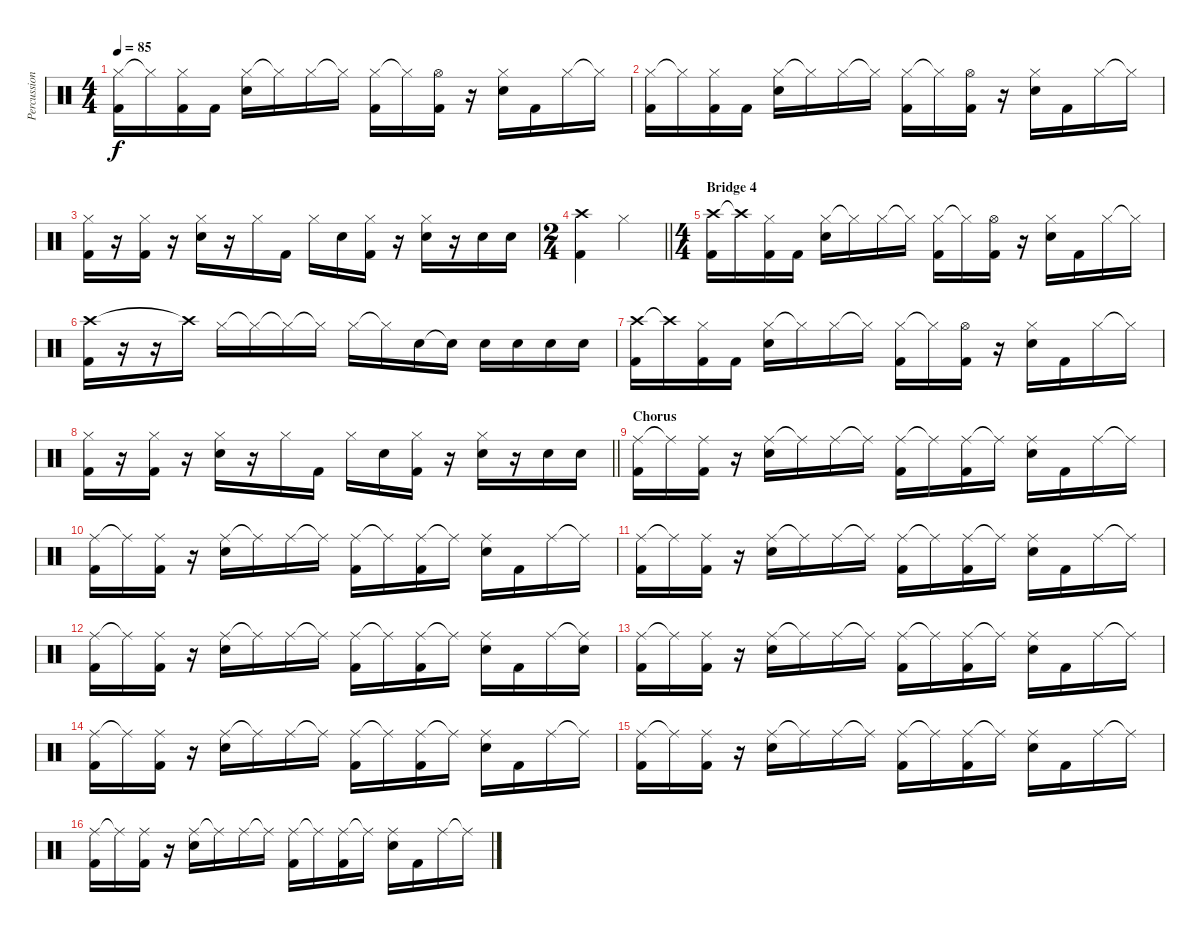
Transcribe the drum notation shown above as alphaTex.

\track ("Percussion" "Percussion") {instrument percussion}
\staff {score}
\articulation defaults
\ts (4 4)
\tempo 85
\clef neutral
\ks c
("Hi-Hat (closed)" "Kick (hit) 2").16{dy f} "Hi-Hat (closed)"{t}.16 ("Hi-Hat (closed)" "Kick (hit) 2").16 "Kick (hit) 2".16 ("Hi-Hat (closed)" "Electric Snare (hit)").16 "Hi-Hat (closed)"{t}.16 "Hi-Hat (closed)".16 "Hi-Hat (closed)"{t}.16 ("Hi-Hat (closed)" "Kick (hit) 2").16 "Hi-Hat (closed)"{t}.16 ("Hi-Hat (open)" "Kick (hit) 2").16 r.16 ("Hi-Hat (closed)" "Electric Snare (hit)").16 "Kick (hit) 2".16 "Hi-Hat (closed)".16 "Hi-Hat (closed)"{t}.16 |
("Hi-Hat (closed)" "Kick (hit) 2").16 "Hi-Hat (closed)"{t}.16 ("Hi-Hat (closed)" "Kick (hit) 2").16 "Kick (hit) 2".16 ("Hi-Hat (closed)" "Electric Snare (hit)").16 "Hi-Hat (closed)"{t}.16 "Hi-Hat (closed)".16 "Hi-Hat (closed)"{t}.16 ("Hi-Hat (closed)" "Kick (hit) 2").16 "Hi-Hat (closed)"{t}.16 ("Hi-Hat (open)" "Kick (hit) 2").16 r.16 ("Hi-Hat (closed)" "Electric Snare (hit)").16 "Kick (hit) 2".16 "Hi-Hat (closed)".16 "Hi-Hat (closed)"{t}.16 |
("Hi-Hat (closed)" "Kick (hit) 2").16 r.16 ("Hi-Hat (closed)" "Kick (hit) 2").16 r.16 ("Hi-Hat (closed)" "Electric Snare (hit)").16 r.16 "Hi-Hat (closed)".16 "Kick (hit) 2".16 "Hi-Hat (closed)".16 "Electric Snare (hit)".16 ("Hi-Hat (closed)" "Kick (hit) 2").16 r.16 ("Hi-Hat (closed)" "Electric Snare (hit)").16 r.16 "Electric Snare (hit)".16 "Electric Snare (hit)".16 |
\ts (2 4)
\barLineRight lightlight
("Crash high (hit)" "Kick (hit) 2").4 "Hi-Hat (closed)".4 |
\ts (4 4)
\section ("" "Bridge 4")
("Crash high (hit)" "Kick (hit) 2").16 "Crash high (hit)"{t}.16 ("Hi-Hat (closed)" "Kick (hit) 2").16 "Kick (hit) 2".16 ("Hi-Hat (closed)" "Electric Snare (hit)").16 "Hi-Hat (closed)"{t}.16 "Hi-Hat (closed)".16 "Hi-Hat (closed)"{t}.16 ("Hi-Hat (closed)" "Kick (hit) 2").16 "Hi-Hat (closed)"{t}.16 ("Hi-Hat (open)" "Kick (hit) 2").16 r.16 ("Hi-Hat (closed)" "Electric Snare (hit)").16 "Kick (hit) 2".16 "Hi-Hat (closed)".16 "Hi-Hat (closed)"{t}.16 |
("Crash high (hit)" "Kick (hit) 2").16 r.16 r.16 "Crash high (hit)"{t}.16 "Hi-Hat (closed)".16 "Hi-Hat (closed)"{t}.16 "Hi-Hat (closed)"{t}.16 "Hi-Hat (closed)"{t}.16 "Hi-Hat (closed)".16 "Hi-Hat (closed)"{t}.16 "Electric Snare (hit)".16 "Electric Snare (hit)"{t}.16 "Electric Snare (hit)".16 "Electric Snare (hit)".16 "Electric Snare (hit)".16 "Electric Snare (hit)".16 |
("Crash high (hit)" "Kick (hit) 2").16 "Crash high (hit)"{t}.16 ("Hi-Hat (closed)" "Kick (hit) 2").16 "Kick (hit) 2".16 ("Hi-Hat (closed)" "Electric Snare (hit)").16 "Hi-Hat (closed)"{t}.16 "Hi-Hat (closed)".16 "Hi-Hat (closed)"{t}.16 ("Hi-Hat (closed)" "Kick (hit) 2").16 "Hi-Hat (closed)"{t}.16 ("Hi-Hat (open)" "Kick (hit) 2").16 r.16 ("Hi-Hat (closed)" "Electric Snare (hit)").16 "Kick (hit) 2".16 "Hi-Hat (closed)".16 "Hi-Hat (closed)"{t}.16 |
\barLineRight lightlight
("Hi-Hat (closed)" "Kick (hit) 2").16 r.16 ("Hi-Hat (closed)" "Kick (hit) 2").16 r.16 ("Hi-Hat (closed)" "Electric Snare (hit)").16 r.16 "Hi-Hat (closed)".16 "Kick (hit) 2".16 "Hi-Hat (closed)".16 "Electric Snare (hit)".16 ("Hi-Hat (closed)" "Kick (hit) 2").16 r.16 ("Hi-Hat (closed)" "Electric Snare (hit)").16 r.16 "Electric Snare (hit)".16 "Electric Snare (hit)".16 |
\section ("" "Chorus")
("Ride (middle)" "Kick (hit) 2").16 "Ride (middle)"{t}.16 ("Ride (middle)" "Kick (hit) 2").16 r.16 ("Ride (middle)" "Electric Snare (hit)").16 "Ride (middle)"{t}.16 "Ride (middle)".16 "Ride (middle)"{t}.16 ("Ride (middle)" "Kick (hit) 2").16 "Ride (middle)"{t}.16 ("Ride (middle)" "Kick (hit) 2").16 "Ride (middle)"{t}.16 ("Ride (middle)" "Electric Snare (hit)").16 "Kick (hit) 2".16 "Ride (middle)".16 "Ride (middle)"{t}.16 |
("Ride (middle)" "Kick (hit) 2").16 "Ride (middle)"{t}.16 ("Ride (middle)" "Kick (hit) 2").16 r.16 ("Ride (middle)" "Electric Snare (hit)").16 "Ride (middle)"{t}.16 "Ride (middle)".16 "Ride (middle)"{t}.16 ("Ride (middle)" "Kick (hit) 2").16 "Ride (middle)"{t}.16 ("Ride (middle)" "Kick (hit) 2").16 "Ride (middle)"{t}.16 ("Ride (middle)" "Electric Snare (hit)").16 "Kick (hit) 2".16 "Ride (middle)".16 "Ride (middle)"{t}.16 |
("Ride (middle)" "Kick (hit) 2").16 "Ride (middle)"{t}.16 ("Ride (middle)" "Kick (hit) 2").16 r.16 ("Ride (middle)" "Electric Snare (hit)").16 "Ride (middle)"{t}.16 "Ride (middle)".16 "Ride (middle)"{t}.16 ("Ride (middle)" "Kick (hit) 2").16 "Ride (middle)"{t}.16 ("Ride (middle)" "Kick (hit) 2").16 "Ride (middle)"{t}.16 ("Ride (middle)" "Electric Snare (hit)").16 "Kick (hit) 2".16 "Ride (middle)".16 "Ride (middle)"{t}.16 |
("Ride (middle)" "Kick (hit) 2").16 "Ride (middle)"{t}.16 ("Ride (middle)" "Kick (hit) 2").16 r.16 ("Ride (middle)" "Electric Snare (hit)").16 "Ride (middle)"{t}.16 "Ride (middle)".16 "Ride (middle)"{t}.16 ("Ride (middle)" "Kick (hit) 2").16 "Ride (middle)"{t}.16 ("Ride (middle)" "Kick (hit) 2").16 "Ride (middle)"{t}.16 ("Ride (middle)" "Electric Snare (hit)").16 "Kick (hit) 2".16 "Ride (middle)".16 ("Ride (middle)"{t} "Electric Snare (hit)").16 |
("Ride (middle)" "Kick (hit) 2").16 "Ride (middle)"{t}.16 ("Ride (middle)" "Kick (hit) 2").16 r.16 ("Ride (middle)" "Electric Snare (hit)").16 "Ride (middle)"{t}.16 "Ride (middle)".16 "Ride (middle)"{t}.16 ("Ride (middle)" "Kick (hit) 2").16 "Ride (middle)"{t}.16 ("Ride (middle)" "Kick (hit) 2").16 "Ride (middle)"{t}.16 ("Ride (middle)" "Electric Snare (hit)").16 "Kick (hit) 2".16 "Ride (middle)".16 "Ride (middle)"{t}.16 |
("Ride (middle)" "Kick (hit) 2").16 "Ride (middle)"{t}.16 ("Ride (middle)" "Kick (hit) 2").16 r.16 ("Ride (middle)" "Electric Snare (hit)").16 "Ride (middle)"{t}.16 "Ride (middle)".16 "Ride (middle)"{t}.16 ("Ride (middle)" "Kick (hit) 2").16 "Ride (middle)"{t}.16 ("Ride (middle)" "Kick (hit) 2").16 "Ride (middle)"{t}.16 ("Ride (middle)" "Electric Snare (hit)").16 "Kick (hit) 2".16 "Ride (middle)".16 "Ride (middle)"{t}.16 |
("Ride (middle)" "Kick (hit) 2").16 "Ride (middle)"{t}.16 ("Ride (middle)" "Kick (hit) 2").16 r.16 ("Ride (middle)" "Electric Snare (hit)").16 "Ride (middle)"{t}.16 "Ride (middle)".16 "Ride (middle)"{t}.16 ("Ride (middle)" "Kick (hit) 2").16 "Ride (middle)"{t}.16 ("Ride (middle)" "Kick (hit) 2").16 "Ride (middle)"{t}.16 ("Ride (middle)" "Electric Snare (hit)").16 "Kick (hit) 2".16 "Ride (middle)".16 "Ride (middle)"{t}.16 |
("Ride (middle)" "Kick (hit) 2").16 "Ride (middle)"{t}.16 ("Ride (middle)" "Kick (hit) 2").16 r.16 ("Ride (middle)" "Electric Snare (hit)").16 "Ride (middle)"{t}.16 "Ride (middle)".16 "Ride (middle)"{t}.16 ("Ride (middle)" "Kick (hit) 2").16 "Ride (middle)"{t}.16 ("Ride (middle)" "Kick (hit) 2").16 "Ride (middle)"{t}.16 ("Ride (middle)" "Electric Snare (hit)").16 "Kick (hit) 2".16 "Ride (middle)".16 "Ride (middle)"{t}.16
